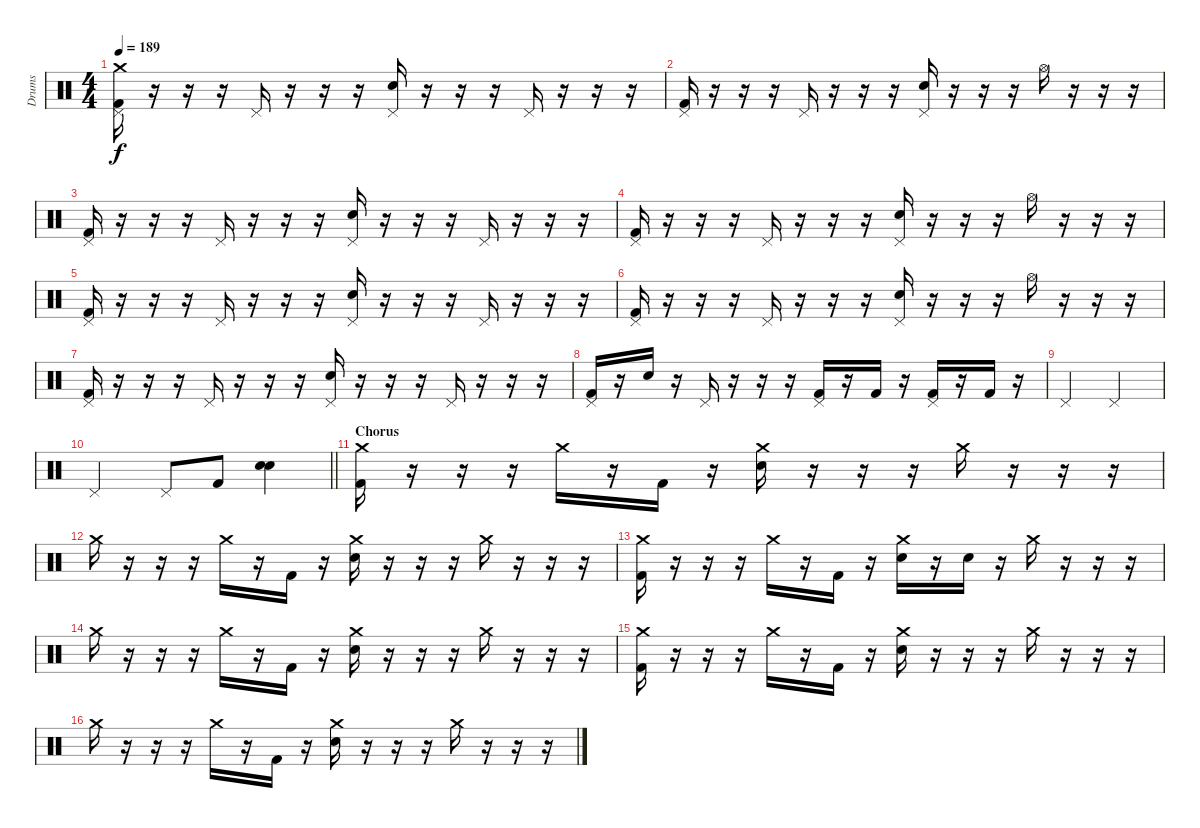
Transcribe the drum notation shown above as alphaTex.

\track ("Drums" "Drums") {instrument percussion}
\staff {score}
\articulation defaults
\ts (4 4)
\tempo 189
\clef neutral
\ks c
("Pedal Hi-Hat (hit)" "Kick (hit) 2" "Crash medium (hit)").16{dy f} r.16 r.16 r.16 "Pedal Hi-Hat (hit)".16 r.16 r.16 r.16 ("Pedal Hi-Hat (hit)" "Snare (hit) 2").16 r.16 r.16 r.16 "Pedal Hi-Hat (hit)".16 r.16 r.16 r.16 |
("Pedal Hi-Hat (hit)" "Kick (hit) 2").16 r.16 r.16 r.16 "Pedal Hi-Hat (hit)".16 r.16 r.16 r.16 ("Pedal Hi-Hat (hit)" "Snare (hit) 2").16 r.16 r.16 r.16 "Hi-Hat (open)".16 r.16 r.16 r.16 |
("Pedal Hi-Hat (hit)" "Kick (hit) 2").16 r.16 r.16 r.16 "Pedal Hi-Hat (hit)".16 r.16 r.16 r.16 ("Pedal Hi-Hat (hit)" "Snare (hit) 2").16 r.16 r.16 r.16 "Pedal Hi-Hat (hit)".16 r.16 r.16 r.16 |
("Pedal Hi-Hat (hit)" "Kick (hit) 2").16 r.16 r.16 r.16 "Pedal Hi-Hat (hit)".16 r.16 r.16 r.16 ("Pedal Hi-Hat (hit)" "Snare (hit) 2").16 r.16 r.16 r.16 "Hi-Hat (open)".16 r.16 r.16 r.16 |
("Pedal Hi-Hat (hit)" "Kick (hit) 2").16 r.16 r.16 r.16 "Pedal Hi-Hat (hit)".16 r.16 r.16 r.16 ("Pedal Hi-Hat (hit)" "Snare (hit) 2").16 r.16 r.16 r.16 "Pedal Hi-Hat (hit)".16 r.16 r.16 r.16 |
("Pedal Hi-Hat (hit)" "Kick (hit) 2").16 r.16 r.16 r.16 "Pedal Hi-Hat (hit)".16 r.16 r.16 r.16 ("Pedal Hi-Hat (hit)" "Snare (hit) 2").16 r.16 r.16 r.16 "Hi-Hat (open)".16 r.16 r.16 r.16 |
("Pedal Hi-Hat (hit)" "Kick (hit) 2").16 r.16 r.16 r.16 "Pedal Hi-Hat (hit)".16 r.16 r.16 r.16 ("Pedal Hi-Hat (hit)" "Snare (hit) 2").16 r.16 r.16 r.16 "Pedal Hi-Hat (hit)".16 r.16 r.16 r.16 |
("Pedal Hi-Hat (hit)" "Kick (hit) 2").16 r.16 "Snare (hit) 2".16 r.16 "Pedal Hi-Hat (hit)".16 r.16 r.16 r.16 ("Pedal Hi-Hat (hit)" "Kick (hit) 2").16 r.16 "Kick (hit) 2".16 r.16 ("Pedal Hi-Hat (hit)" "Kick (hit) 2").16 r.16 "Kick (hit) 2".16 r.16 |
"Pedal Hi-Hat (hit)".2 "Pedal Hi-Hat (hit)".2 |
\barLineRight lightlight "Pedal Hi-Hat (hit)".2 "Pedal Hi-Hat (hit)".8 "Kick (hit) 2".8
("Snare (hit) 2" "Electric Snare (hit)").4 |
\section ("" "Chorus")
("Crash medium (hit)" "Kick (hit) 2").16 r.16 r.16 r.16 "Crash medium (hit)".16 r.16 "Kick (hit) 2".16 r.16 ("Crash medium (hit)" "Electric Snare (hit)").16 r.16 r.16 r.16 "Crash medium (hit)".16 r.16 r.16 r.16 |
"Crash medium (hit)".16 r.16 r.16 r.16 "Crash medium (hit)".16 r.16 "Kick (hit) 2".16 r.16 ("Crash medium (hit)" "Electric Snare (hit)").16 r.16 r.16 r.16 "Crash medium (hit)".16 r.16 r.16 r.16 |
("Crash medium (hit)" "Kick (hit) 2").16 r.16 r.16 r.16 "Crash medium (hit)".16 r.16 "Kick (hit) 2".16 r.16 ("Crash medium (hit)" "Electric Snare (hit)").16 r.16 "Electric Snare (hit)".16 r.16 "Crash medium (hit)".16 r.16 r.16 r.16 |
"Crash medium (hit)".16 r.16 r.16 r.16 "Crash medium (hit)".16 r.16 "Kick (hit) 2".16 r.16 ("Crash medium (hit)" "Electric Snare (hit)").16 r.16 r.16 r.16 "Crash medium (hit)".16 r.16 r.16 r.16 |
("Crash medium (hit)" "Kick (hit) 2").16 r.16 r.16 r.16 "Crash medium (hit)".16 r.16 "Kick (hit) 2".16 r.16 ("Crash medium (hit)" "Electric Snare (hit)").16 r.16 r.16 r.16 "Crash medium (hit)".16 r.16 r.16 r.16 |
"Crash medium (hit)".16 r.16 r.16 r.16 "Crash medium (hit)".16 r.16 "Kick (hit) 2".16 r.16 ("Crash medium (hit)" "Electric Snare (hit)").16 r.16 r.16 r.16 "Crash medium (hit)".16 r.16 r.16 r.16
